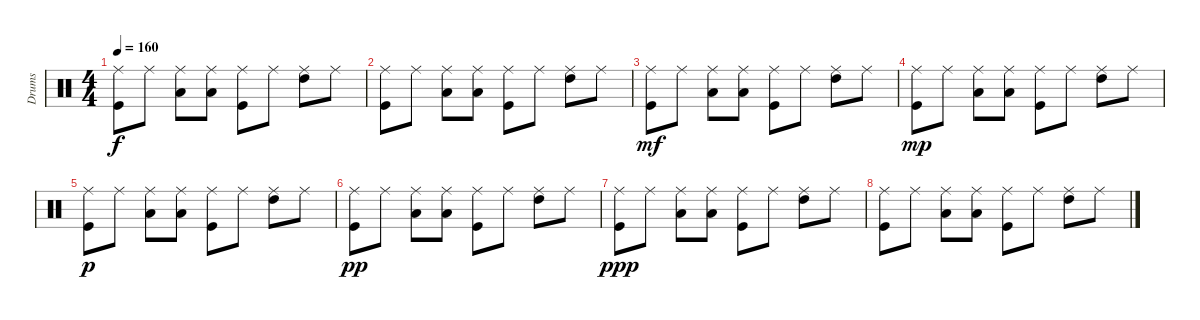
\track ("Drums" "Drums") {instrument percussion}
\staff {score}
\articulation defaults
\ts (4 4)
\tempo 160
\clef neutral
\ks c
("Ride (middle)" "Kick (hit)").8{dy f} "Ride (middle)".8 ("Ride (middle)" "Low Floor Tom (hit)").8 ("Ride (middle)" "Low Floor Tom (hit)").8 ("Ride (middle)" "Kick (hit)").8 "Ride (middle)".8 ("Ride (middle)" "High Tom (hit)").8 "Ride (middle)".8 |
("Ride (middle)" "Kick (hit)").8 "Ride (middle)".8 ("Ride (middle)" "Low Floor Tom (hit)").8 ("Ride (middle)" "Low Floor Tom (hit)").8 ("Ride (middle)" "Kick (hit)").8 "Ride (middle)".8 ("Ride (middle)" "High Tom (hit)").8 "Ride (middle)".8 |
("Ride (middle)" "Kick (hit)").8{dy mf} "Ride (middle)".8 ("Ride (middle)" "Low Floor Tom (hit)").8 ("Ride (middle)" "Low Floor Tom (hit)").8 ("Ride (middle)" "Kick (hit)").8 "Ride (middle)".8 ("Ride (middle)" "High Tom (hit)").8 "Ride (middle)".8 |
("Ride (middle)" "Kick (hit)").8{dy mp} "Ride (middle)".8 ("Ride (middle)" "Low Floor Tom (hit)").8 ("Ride (middle)" "Low Floor Tom (hit)").8 ("Ride (middle)" "Kick (hit)").8 "Ride (middle)".8 ("Ride (middle)" "High Tom (hit)").8 "Ride (middle)".8 |
("Ride (middle)" "Kick (hit)").8{dy p} "Ride (middle)".8 ("Ride (middle)" "Low Floor Tom (hit)").8 ("Ride (middle)" "Low Floor Tom (hit)").8 ("Ride (middle)" "Kick (hit)").8 "Ride (middle)".8 ("Ride (middle)" "High Tom (hit)").8 "Ride (middle)".8 |
("Ride (middle)" "Kick (hit)").8{dy pp} "Ride (middle)".8 ("Ride (middle)" "Low Floor Tom (hit)").8 ("Ride (middle)" "Low Floor Tom (hit)").8 ("Ride (middle)" "Kick (hit)").8 "Ride (middle)".8 ("Ride (middle)" "High Tom (hit)").8 "Ride (middle)".8 |
("Ride (middle)" "Kick (hit)").8{dy ppp} "Ride (middle)".8 ("Ride (middle)" "Low Floor Tom (hit)").8 ("Ride (middle)" "Low Floor Tom (hit)").8 ("Ride (middle)" "Kick (hit)").8 "Ride (middle)".8 ("Ride (middle)" "High Tom (hit)").8 "Ride (middle)".8 |
("Ride (middle)" "Kick (hit)").8 "Ride (middle)".8 ("Ride (middle)" "Low Floor Tom (hit)").8 ("Ride (middle)" "Low Floor Tom (hit)").8 ("Ride (middle)" "Kick (hit)").8 "Ride (middle)".8 ("Ride (middle)" "High Tom (hit)").8 "Ride (middle)".8
